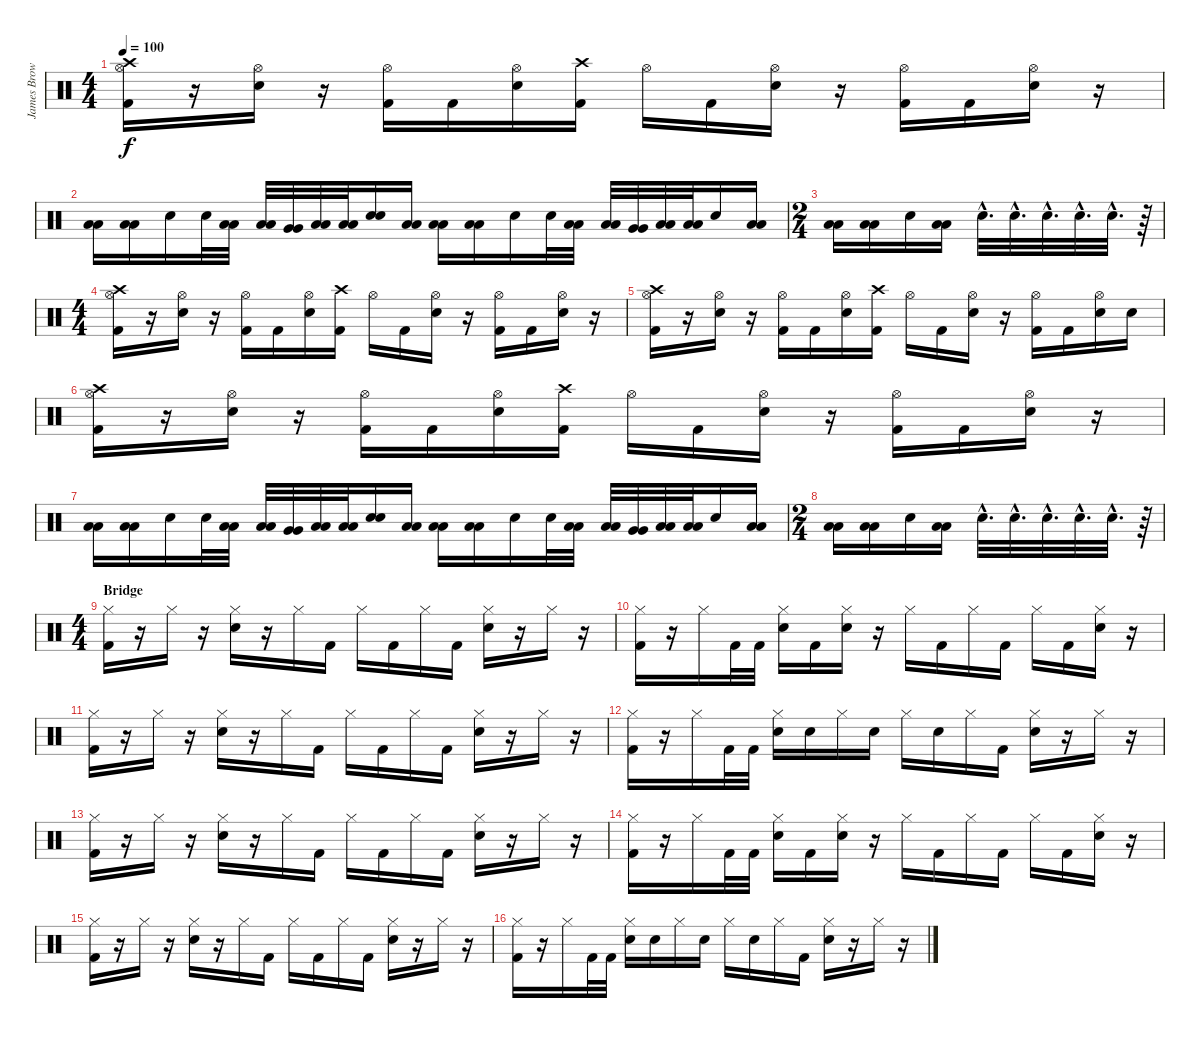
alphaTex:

\track ("James Brown" "James Brow") {instrument percussion}
\staff {score}
\articulation defaults
\ts (4 4)
\tempo 100
\clef neutral
\ks c
("Crash high (hit)" "Hi-Hat (open)" "Kick (hit) 2").16{dy f} r.16 ("Hi-Hat (open)" "Snare (hit) 2").16 r.16 ("Hi-Hat (open)" "Kick (hit) 2").16 "Kick (hit) 2".16 ("Hi-Hat (open)" "Snare (hit) 2").16 ("Crash high (hit)" "Kick (hit) 2").16 "Hi-Hat (open)".16 "Kick (hit) 2".16 ("Hi-Hat (open)" "Snare (hit) 2").16 r.16 ("Hi-Hat (open)" "Kick (hit) 2").16 "Kick (hit) 2".16 ("Hi-Hat (open)" "Snare (hit) 2").16 r.16 |
("Low Floor Tom (hit)" "Low Floor Tom (hit)").16 ("Low Floor Tom (hit)" "Low Floor Tom (hit)").16 "Snare (hit) 2".16 "Snare (hit) 2".32 ("Low Tom (hit)" "Low Tom (hit)").32 ("Low Tom (hit)" "Low Tom (hit)").32 ("Very Low Tom (hit)" "Very Low Tom (hit)").32 ("Low Floor Tom (hit)" "Low Floor Tom (hit)").32 ("Low Floor Tom (hit)" "Low Floor Tom (hit)").32 ("Snare (hit) 2" "Snare (hit) 2").16 ("Low Floor Tom (hit)" "Low Floor Tom (hit)").16 ("Low Floor Tom (hit)" "Low Floor Tom (hit)").16 ("Low Floor Tom (hit)" "Low Floor Tom (hit)").16 "Snare (hit) 2".16 "Snare (hit) 2".32 ("Low Tom (hit)" "Low Tom (hit)").32 ("Low Tom (hit)" "Low Tom (hit)").32 ("Very Low Tom (hit)" "Very Low Tom (hit)").32 ("Low Floor Tom (hit)" "Low Floor Tom (hit)").32 ("Low Floor Tom (hit)" "Low Floor Tom (hit)").32 "Snare (hit) 2".16 ("Low Floor Tom (hit)" "Low Floor Tom (hit)").16 |
\ts (2 4)
("Low Floor Tom (hit)" "Low Floor Tom (hit)").16 ("Low Floor Tom (hit)" "Low Floor Tom (hit)").16 "Snare (hit) 2".16 ("Low Floor Tom (hit)" "Low Floor Tom (hit)").16 "Snare (hit) 2"{hac}.32{d} "Snare (hit) 2"{hac}.32{d} "Snare (hit) 2"{hac}.32{d} "Snare (hit) 2"{hac}.32{d} "Snare (hit) 2"{hac}.32{d} r.64 |
\ts (4 4)
("Crash high (hit)" "Hi-Hat (open)" "Kick (hit) 2").16 r.16 ("Hi-Hat (open)" "Snare (hit) 2").16 r.16 ("Hi-Hat (open)" "Kick (hit) 2").16 "Kick (hit) 2".16 ("Hi-Hat (open)" "Snare (hit) 2").16 ("Crash high (hit)" "Kick (hit) 2").16 "Hi-Hat (open)".16 "Kick (hit) 2".16 ("Hi-Hat (open)" "Snare (hit) 2").16 r.16 ("Hi-Hat (open)" "Kick (hit) 2").16 "Kick (hit) 2".16 ("Hi-Hat (open)" "Snare (hit) 2").16 r.16 |
("Crash high (hit)" "Hi-Hat (open)" "Kick (hit) 2").16 r.16 ("Hi-Hat (open)" "Snare (hit) 2").16 r.16 ("Hi-Hat (open)" "Kick (hit) 2").16 "Kick (hit) 2".16 ("Hi-Hat (open)" "Snare (hit) 2").16 ("Crash high (hit)" "Kick (hit) 2").16 "Hi-Hat (open)".16 "Kick (hit) 2".16 ("Hi-Hat (open)" "Snare (hit) 2").16 r.16 ("Hi-Hat (open)" "Kick (hit) 2").16 "Kick (hit) 2".16 ("Hi-Hat (open)" "Snare (hit) 2").16 "Snare (hit) 2".16 |
("Crash high (hit)" "Hi-Hat (open)" "Kick (hit) 2").16 r.16 ("Hi-Hat (open)" "Snare (hit) 2").16 r.16 ("Hi-Hat (open)" "Kick (hit) 2").16 "Kick (hit) 2".16 ("Hi-Hat (open)" "Snare (hit) 2").16 ("Crash high (hit)" "Kick (hit) 2").16 "Hi-Hat (open)".16 "Kick (hit) 2".16 ("Hi-Hat (open)" "Snare (hit) 2").16 r.16 ("Hi-Hat (open)" "Kick (hit) 2").16 "Kick (hit) 2".16 ("Hi-Hat (open)" "Snare (hit) 2").16 r.16 |
("Low Floor Tom (hit)" "Low Floor Tom (hit)").16 ("Low Floor Tom (hit)" "Low Floor Tom (hit)").16 "Snare (hit) 2".16 "Snare (hit) 2".32 ("Low Tom (hit)" "Low Tom (hit)").32 ("Low Tom (hit)" "Low Tom (hit)").32 ("Very Low Tom (hit)" "Very Low Tom (hit)").32 ("Low Floor Tom (hit)" "Low Floor Tom (hit)").32 ("Low Floor Tom (hit)" "Low Floor Tom (hit)").32 ("Snare (hit) 2" "Snare (hit) 2").16 ("Low Floor Tom (hit)" "Low Floor Tom (hit)").16 ("Low Floor Tom (hit)" "Low Floor Tom (hit)").16 ("Low Floor Tom (hit)" "Low Floor Tom (hit)").16 "Snare (hit) 2".16 "Snare (hit) 2".32 ("Low Tom (hit)" "Low Tom (hit)").32 ("Low Tom (hit)" "Low Tom (hit)").32 ("Very Low Tom (hit)" "Very Low Tom (hit)").32 ("Low Floor Tom (hit)" "Low Floor Tom (hit)").32 ("Low Floor Tom (hit)" "Low Floor Tom (hit)").32 "Snare (hit) 2".16 ("Low Floor Tom (hit)" "Low Floor Tom (hit)").16 |
\ts (2 4)
("Low Floor Tom (hit)" "Low Floor Tom (hit)").16 ("Low Floor Tom (hit)" "Low Floor Tom (hit)").16 "Snare (hit) 2".16 ("Low Floor Tom (hit)" "Low Floor Tom (hit)").16 "Snare (hit) 2"{hac}.32{d} "Snare (hit) 2"{hac}.32{d} "Snare (hit) 2"{hac}.32{d} "Snare (hit) 2"{hac}.32{d} "Snare (hit) 2"{hac}.32{d} r.64 |
\ts (4 4)
\section ("" "Bridge")
("Hi-Hat (closed)" "Kick (hit) 2").16 r.16 "Hi-Hat (closed)".16 r.16 ("Hi-Hat (closed)" "Snare (hit) 2").16 r.16 "Hi-Hat (closed)".16 "Kick (hit) 2".16 "Hi-Hat (closed)".16 "Kick (hit) 2".16 "Hi-Hat (closed)".16 "Kick (hit) 2".16 ("Hi-Hat (closed)" "Snare (hit) 2").16 r.16 "Hi-Hat (closed)".16 r.16 |
("Hi-Hat (closed)" "Kick (hit) 2").16 r.16 "Hi-Hat (closed)".16 "Kick (hit) 2".32 "Kick (hit) 2".32 ("Hi-Hat (closed)" "Snare (hit) 2").16 "Kick (hit) 2".16 ("Hi-Hat (closed)" "Snare (hit) 2").16 r.16 "Hi-Hat (closed)".16 "Kick (hit) 2".16 "Hi-Hat (closed)".16 "Kick (hit) 2".16 "Hi-Hat (closed)".16 "Kick (hit) 2".16 ("Hi-Hat (closed)" "Snare (hit) 2").16 r.16 |
("Hi-Hat (closed)" "Kick (hit) 2").16 r.16 "Hi-Hat (closed)".16 r.16 ("Hi-Hat (closed)" "Snare (hit) 2").16 r.16 "Hi-Hat (closed)".16 "Kick (hit) 2".16 "Hi-Hat (closed)".16 "Kick (hit) 2".16 "Hi-Hat (closed)".16 "Kick (hit) 2".16 ("Hi-Hat (closed)" "Snare (hit) 2").16 r.16 "Hi-Hat (closed)".16 r.16 |
("Hi-Hat (closed)" "Kick (hit) 2").16 r.16 "Hi-Hat (closed)".16 "Kick (hit) 2".32 "Kick (hit) 2".32 ("Hi-Hat (closed)" "Snare (hit) 2").16 "Snare (hit) 2".16 "Hi-Hat (closed)".16 "Snare (hit) 2".16 "Hi-Hat (closed)".16 "Snare (hit) 2".16 "Hi-Hat (closed)".16 "Kick (hit) 2".16 ("Hi-Hat (closed)" "Snare (hit) 2").16 r.16 "Hi-Hat (closed)".16 r.16 |
("Hi-Hat (closed)" "Kick (hit) 2").16 r.16 "Hi-Hat (closed)".16 r.16 ("Hi-Hat (closed)" "Snare (hit) 2").16 r.16 "Hi-Hat (closed)".16 "Kick (hit) 2".16 "Hi-Hat (closed)".16 "Kick (hit) 2".16 "Hi-Hat (closed)".16 "Kick (hit) 2".16 ("Hi-Hat (closed)" "Snare (hit) 2").16 r.16 "Hi-Hat (closed)".16 r.16 |
("Hi-Hat (closed)" "Kick (hit) 2").16 r.16 "Hi-Hat (closed)".16 "Kick (hit) 2".32 "Kick (hit) 2".32 ("Hi-Hat (closed)" "Snare (hit) 2").16 "Kick (hit) 2".16 ("Hi-Hat (closed)" "Snare (hit) 2").16 r.16 "Hi-Hat (closed)".16 "Kick (hit) 2".16 "Hi-Hat (closed)".16 "Kick (hit) 2".16 "Hi-Hat (closed)".16 "Kick (hit) 2".16 ("Hi-Hat (closed)" "Snare (hit) 2").16 r.16 |
("Hi-Hat (closed)" "Kick (hit) 2").16 r.16 "Hi-Hat (closed)".16 r.16 ("Hi-Hat (closed)" "Snare (hit) 2").16 r.16 "Hi-Hat (closed)".16 "Kick (hit) 2".16 "Hi-Hat (closed)".16 "Kick (hit) 2".16 "Hi-Hat (closed)".16 "Kick (hit) 2".16 ("Hi-Hat (closed)" "Snare (hit) 2").16 r.16 "Hi-Hat (closed)".16 r.16 |
("Hi-Hat (closed)" "Kick (hit) 2").16 r.16 "Hi-Hat (closed)".16 "Kick (hit) 2".32 "Kick (hit) 2".32 ("Hi-Hat (closed)" "Snare (hit) 2").16 "Snare (hit) 2".16 "Hi-Hat (closed)".16 "Snare (hit) 2".16 "Hi-Hat (closed)".16 "Snare (hit) 2".16 "Hi-Hat (closed)".16 "Kick (hit) 2".16 ("Hi-Hat (closed)" "Snare (hit) 2").16 r.16 "Hi-Hat (closed)".16 r.16
